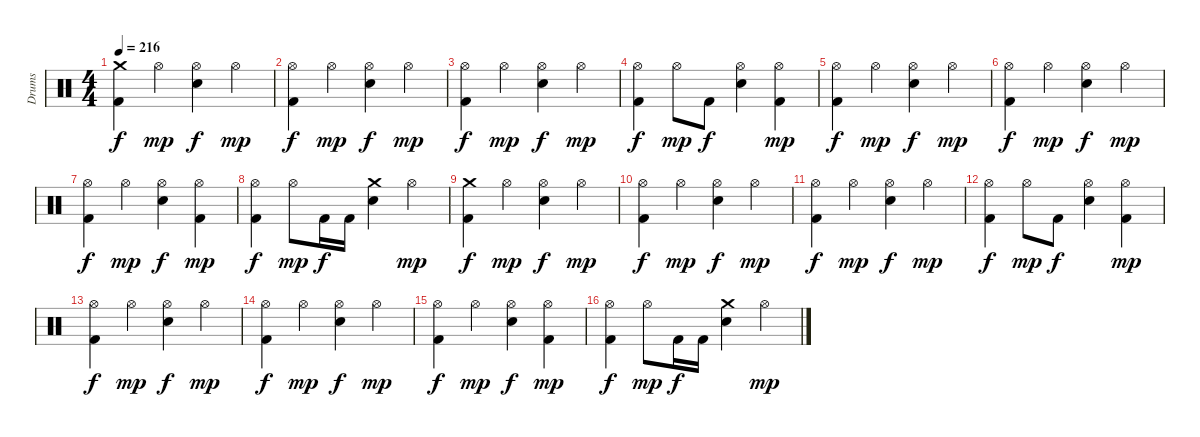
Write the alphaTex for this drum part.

\track ("Drums" "Drums") {instrument percussion}
\staff {score}
\articulation defaults
\ts (4 4)
\tempo 216
\clef neutral
\ks c
("Crash medium (hit)" "Kick (hit) 2").4{dy f} "Hi-Hat (open)".4{dy mp} ("Hi-Hat (open)" "Electric Snare (hit)").4{dy f} "Hi-Hat (open)".4{dy mp} |
("Kick (hit) 2" "Hi-Hat (open)").4{dy f} "Hi-Hat (open)".4{dy mp} ("Electric Snare (hit)" "Hi-Hat (open)").4{dy f} "Hi-Hat (open)".4{dy mp} |
("Kick (hit) 2" "Hi-Hat (open)").4{dy f} "Hi-Hat (open)".4{dy mp} ("Electric Snare (hit)" "Hi-Hat (open)").4{dy f} "Hi-Hat (open)".4{dy mp} |
("Kick (hit) 2" "Hi-Hat (open)").4{dy f} "Hi-Hat (open)".8{dy mp} "Kick (hit) 2".8{dy f} ("Electric Snare (hit)" "Hi-Hat (open)").4 ("Hi-Hat (open)" "Kick (hit) 2").4{dy mp} |
("Kick (hit) 2" "Hi-Hat (open)").4{dy f} "Hi-Hat (open)".4{dy mp} ("Electric Snare (hit)" "Hi-Hat (open)").4{dy f} "Hi-Hat (open)".4{dy mp} |
("Kick (hit) 2" "Hi-Hat (open)").4{dy f} "Hi-Hat (open)".4{dy mp} ("Electric Snare (hit)" "Hi-Hat (open)").4{dy f} "Hi-Hat (open)".4{dy mp} |
("Kick (hit) 2" "Hi-Hat (open)").4{dy f} "Hi-Hat (open)".4{dy mp} ("Electric Snare (hit)" "Hi-Hat (open)").4{dy f} ("Hi-Hat (open)" "Kick (hit) 2").4{dy mp} |
("Kick (hit) 2" "Hi-Hat (open)").4{dy f} "Hi-Hat (open)".8{dy mp} "Kick (hit) 2".16{dy f} "Kick (hit) 2".16 ("Electric Snare (hit)" "Crash medium (hit)").4 "Hi-Hat (open)".4{dy mp} |
("Crash medium (hit)" "Kick (hit) 2").4{dy f} "Hi-Hat (open)".4{dy mp} ("Hi-Hat (open)" "Electric Snare (hit)").4{dy f} "Hi-Hat (open)".4{dy mp} |
("Kick (hit) 2" "Hi-Hat (open)").4{dy f} "Hi-Hat (open)".4{dy mp} ("Electric Snare (hit)" "Hi-Hat (open)").4{dy f} "Hi-Hat (open)".4{dy mp} |
("Kick (hit) 2" "Hi-Hat (open)").4{dy f} "Hi-Hat (open)".4{dy mp} ("Electric Snare (hit)" "Hi-Hat (open)").4{dy f} "Hi-Hat (open)".4{dy mp} |
("Kick (hit) 2" "Hi-Hat (open)").4{dy f} "Hi-Hat (open)".8{dy mp} "Kick (hit) 2".8{dy f} ("Electric Snare (hit)" "Hi-Hat (open)").4 ("Hi-Hat (open)" "Kick (hit) 2").4{dy mp} |
("Kick (hit) 2" "Hi-Hat (open)").4{dy f} "Hi-Hat (open)".4{dy mp} ("Electric Snare (hit)" "Hi-Hat (open)").4{dy f} "Hi-Hat (open)".4{dy mp} |
("Kick (hit) 2" "Hi-Hat (open)").4{dy f} "Hi-Hat (open)".4{dy mp} ("Electric Snare (hit)" "Hi-Hat (open)").4{dy f} "Hi-Hat (open)".4{dy mp} |
("Kick (hit) 2" "Hi-Hat (open)").4{dy f} "Hi-Hat (open)".4{dy mp} ("Electric Snare (hit)" "Hi-Hat (open)").4{dy f} ("Hi-Hat (open)" "Kick (hit) 2").4{dy mp} |
("Kick (hit) 2" "Hi-Hat (open)").4{dy f} "Hi-Hat (open)".8{dy mp} "Kick (hit) 2".16{dy f} "Kick (hit) 2".16 ("Electric Snare (hit)" "Crash medium (hit)").4 "Hi-Hat (open)".4{dy mp}
